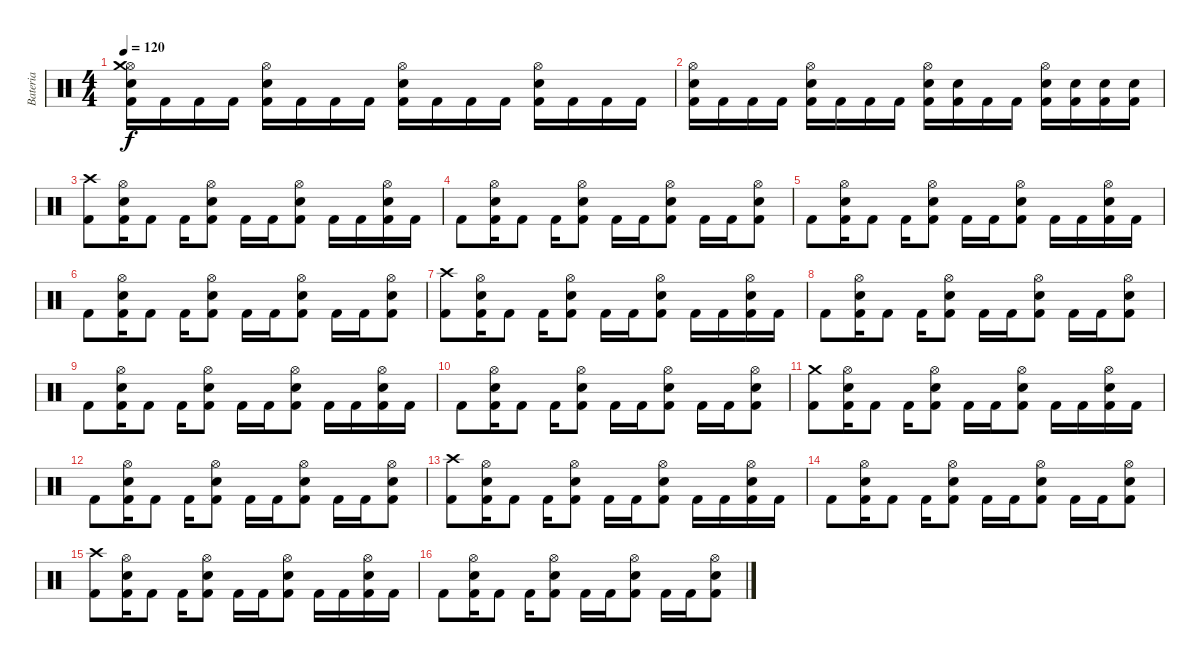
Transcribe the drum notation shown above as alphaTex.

\track ("Bateria" "Bateria") {instrument percussion}
\staff {score}
\articulation defaults
\ts (4 4)
\tempo 120
\clef neutral
\ks c
("Kick (hit) 2" "Electric Snare (hit)" "Hi-Hat (open)" "Crash medium (hit)").16{dy f} "Kick (hit) 2".16 "Kick (hit) 2".16 "Kick (hit) 2".16 ("Kick (hit) 2" "Electric Snare (hit)" "Hi-Hat (open)").16 "Kick (hit) 2".16 "Kick (hit) 2".16 "Kick (hit) 2".16 ("Kick (hit) 2" "Electric Snare (hit)" "Hi-Hat (open)").16 "Kick (hit) 2".16 "Kick (hit) 2".16 "Kick (hit) 2".16 ("Kick (hit) 2" "Electric Snare (hit)" "Hi-Hat (open)").16 "Kick (hit) 2".16 "Kick (hit) 2".16 "Kick (hit) 2".16 |
("Kick (hit) 2" "Electric Snare (hit)" "Hi-Hat (open)").16 "Kick (hit) 2".16 "Kick (hit) 2".16 "Kick (hit) 2".16 ("Kick (hit) 2" "Electric Snare (hit)" "Hi-Hat (open)").16 "Kick (hit) 2".16 "Kick (hit) 2".16 "Kick (hit) 2".16 ("Kick (hit) 2" "Electric Snare (hit)" "Hi-Hat (open)").16 ("Kick (hit) 2" "Electric Snare (hit)").16 "Kick (hit) 2".16 "Kick (hit) 2".16 ("Kick (hit) 2" "Electric Snare (hit)" "Hi-Hat (open)").16 ("Kick (hit) 2" "Electric Snare (hit)").16 ("Kick (hit) 2" "Electric Snare (hit)").16 ("Kick (hit) 2" "Electric Snare (hit)").16 |
("Kick (hit) 2" "Crash high (hit)").8 ("Kick (hit) 2" "Electric Snare (hit)" "Hi-Hat (open)").16 "Kick (hit) 2".8 "Kick (hit) 2".16 ("Kick (hit) 2" "Electric Snare (hit)" "Hi-Hat (open)").8 "Kick (hit) 2".16 "Kick (hit) 2".16 ("Kick (hit) 2" "Electric Snare (hit)" "Hi-Hat (open)").8 "Kick (hit) 2".16 "Kick (hit) 2".16 ("Kick (hit) 2" "Electric Snare (hit)" "Hi-Hat (open)").16 "Kick (hit) 2".16 |
"Kick (hit) 2".8 ("Kick (hit) 2" "Electric Snare (hit)" "Hi-Hat (open)").16 "Kick (hit) 2".8 "Kick (hit) 2".16 ("Kick (hit) 2" "Electric Snare (hit)" "Hi-Hat (open)").8 "Kick (hit) 2".16 "Kick (hit) 2".16 ("Kick (hit) 2" "Electric Snare (hit)" "Hi-Hat (open)").8 "Kick (hit) 2".16 "Kick (hit) 2".16 ("Kick (hit) 2" "Electric Snare (hit)" "Hi-Hat (open)").8 |
"Kick (hit) 2".8 ("Kick (hit) 2" "Electric Snare (hit)" "Hi-Hat (open)").16 "Kick (hit) 2".8 "Kick (hit) 2".16 ("Kick (hit) 2" "Electric Snare (hit)" "Hi-Hat (open)").8 "Kick (hit) 2".16 "Kick (hit) 2".16 ("Kick (hit) 2" "Electric Snare (hit)" "Hi-Hat (open)").8 "Kick (hit) 2".16 "Kick (hit) 2".16 ("Kick (hit) 2" "Electric Snare (hit)" "Hi-Hat (open)").16 "Kick (hit) 2".16 |
"Kick (hit) 2".8 ("Kick (hit) 2" "Electric Snare (hit)" "Hi-Hat (open)").16 "Kick (hit) 2".8 "Kick (hit) 2".16 ("Kick (hit) 2" "Electric Snare (hit)" "Hi-Hat (open)").8 "Kick (hit) 2".16 "Kick (hit) 2".16 ("Kick (hit) 2" "Electric Snare (hit)" "Hi-Hat (open)").8 "Kick (hit) 2".16 "Kick (hit) 2".16 ("Kick (hit) 2" "Electric Snare (hit)" "Hi-Hat (open)").8 |
("Kick (hit) 2" "Crash high (hit)").8 ("Kick (hit) 2" "Electric Snare (hit)" "Hi-Hat (open)").16 "Kick (hit) 2".8 "Kick (hit) 2".16 ("Kick (hit) 2" "Electric Snare (hit)" "Hi-Hat (open)").8 "Kick (hit) 2".16 "Kick (hit) 2".16 ("Kick (hit) 2" "Electric Snare (hit)" "Hi-Hat (open)").8 "Kick (hit) 2".16 "Kick (hit) 2".16 ("Kick (hit) 2" "Electric Snare (hit)" "Hi-Hat (open)").16 "Kick (hit) 2".16 |
"Kick (hit) 2".8 ("Kick (hit) 2" "Electric Snare (hit)" "Hi-Hat (open)").16 "Kick (hit) 2".8 "Kick (hit) 2".16 ("Kick (hit) 2" "Electric Snare (hit)" "Hi-Hat (open)").8 "Kick (hit) 2".16 "Kick (hit) 2".16 ("Kick (hit) 2" "Electric Snare (hit)" "Hi-Hat (open)").8 "Kick (hit) 2".16 "Kick (hit) 2".16 ("Kick (hit) 2" "Electric Snare (hit)" "Hi-Hat (open)").8 |
"Kick (hit) 2".8 ("Kick (hit) 2" "Electric Snare (hit)" "Hi-Hat (open)").16 "Kick (hit) 2".8 "Kick (hit) 2".16 ("Kick (hit) 2" "Electric Snare (hit)" "Hi-Hat (open)").8 "Kick (hit) 2".16 "Kick (hit) 2".16 ("Kick (hit) 2" "Electric Snare (hit)" "Hi-Hat (open)").8 "Kick (hit) 2".16 "Kick (hit) 2".16 ("Kick (hit) 2" "Electric Snare (hit)" "Hi-Hat (open)").16 "Kick (hit) 2".16 |
"Kick (hit) 2".8 ("Kick (hit) 2" "Electric Snare (hit)" "Hi-Hat (open)").16 "Kick (hit) 2".8 "Kick (hit) 2".16 ("Kick (hit) 2" "Electric Snare (hit)" "Hi-Hat (open)").8 "Kick (hit) 2".16 "Kick (hit) 2".16 ("Kick (hit) 2" "Electric Snare (hit)" "Hi-Hat (open)").8 "Kick (hit) 2".16 "Kick (hit) 2".16 ("Kick (hit) 2" "Electric Snare (hit)" "Hi-Hat (open)").8 |
("Kick (hit) 2" "Crash medium (hit)").8 ("Kick (hit) 2" "Electric Snare (hit)" "Hi-Hat (open)").16 "Kick (hit) 2".8 "Kick (hit) 2".16 ("Kick (hit) 2" "Electric Snare (hit)" "Hi-Hat (open)").8 "Kick (hit) 2".16 "Kick (hit) 2".16 ("Kick (hit) 2" "Electric Snare (hit)" "Hi-Hat (open)").8 "Kick (hit) 2".16 "Kick (hit) 2".16 ("Kick (hit) 2" "Electric Snare (hit)" "Hi-Hat (open)").16 "Kick (hit) 2".16 |
"Kick (hit) 2".8 ("Kick (hit) 2" "Electric Snare (hit)" "Hi-Hat (open)").16 "Kick (hit) 2".8 "Kick (hit) 2".16 ("Kick (hit) 2" "Electric Snare (hit)" "Hi-Hat (open)").8 "Kick (hit) 2".16 "Kick (hit) 2".16 ("Kick (hit) 2" "Electric Snare (hit)" "Hi-Hat (open)").8 "Kick (hit) 2".16 "Kick (hit) 2".16 ("Kick (hit) 2" "Electric Snare (hit)" "Hi-Hat (open)").8 |
("Kick (hit) 2" "Crash high (hit)").8 ("Kick (hit) 2" "Electric Snare (hit)" "Hi-Hat (open)").16 "Kick (hit) 2".8 "Kick (hit) 2".16 ("Kick (hit) 2" "Electric Snare (hit)" "Hi-Hat (open)").8 "Kick (hit) 2".16 "Kick (hit) 2".16 ("Kick (hit) 2" "Electric Snare (hit)" "Hi-Hat (open)").8 "Kick (hit) 2".16 "Kick (hit) 2".16 ("Kick (hit) 2" "Electric Snare (hit)" "Hi-Hat (open)").16 "Kick (hit) 2".16 |
"Kick (hit) 2".8 ("Kick (hit) 2" "Electric Snare (hit)" "Hi-Hat (open)").16 "Kick (hit) 2".8 "Kick (hit) 2".16 ("Kick (hit) 2" "Electric Snare (hit)" "Hi-Hat (open)").8 "Kick (hit) 2".16 "Kick (hit) 2".16 ("Kick (hit) 2" "Electric Snare (hit)" "Hi-Hat (open)").8 "Kick (hit) 2".16 "Kick (hit) 2".16 ("Kick (hit) 2" "Electric Snare (hit)" "Hi-Hat (open)").8 |
("Kick (hit) 2" "Crash high (hit)").8 ("Kick (hit) 2" "Electric Snare (hit)" "Hi-Hat (open)").16 "Kick (hit) 2".8 "Kick (hit) 2".16 ("Kick (hit) 2" "Electric Snare (hit)" "Hi-Hat (open)").8 "Kick (hit) 2".16 "Kick (hit) 2".16 ("Kick (hit) 2" "Electric Snare (hit)" "Hi-Hat (open)").8 "Kick (hit) 2".16 "Kick (hit) 2".16 ("Kick (hit) 2" "Electric Snare (hit)" "Hi-Hat (open)").16 "Kick (hit) 2".16 |
"Kick (hit) 2".8 ("Kick (hit) 2" "Electric Snare (hit)" "Hi-Hat (open)").16 "Kick (hit) 2".8 "Kick (hit) 2".16 ("Kick (hit) 2" "Electric Snare (hit)" "Hi-Hat (open)").8 "Kick (hit) 2".16 "Kick (hit) 2".16 ("Kick (hit) 2" "Electric Snare (hit)" "Hi-Hat (open)").8 "Kick (hit) 2".16 "Kick (hit) 2".16 ("Kick (hit) 2" "Electric Snare (hit)" "Hi-Hat (open)").8
